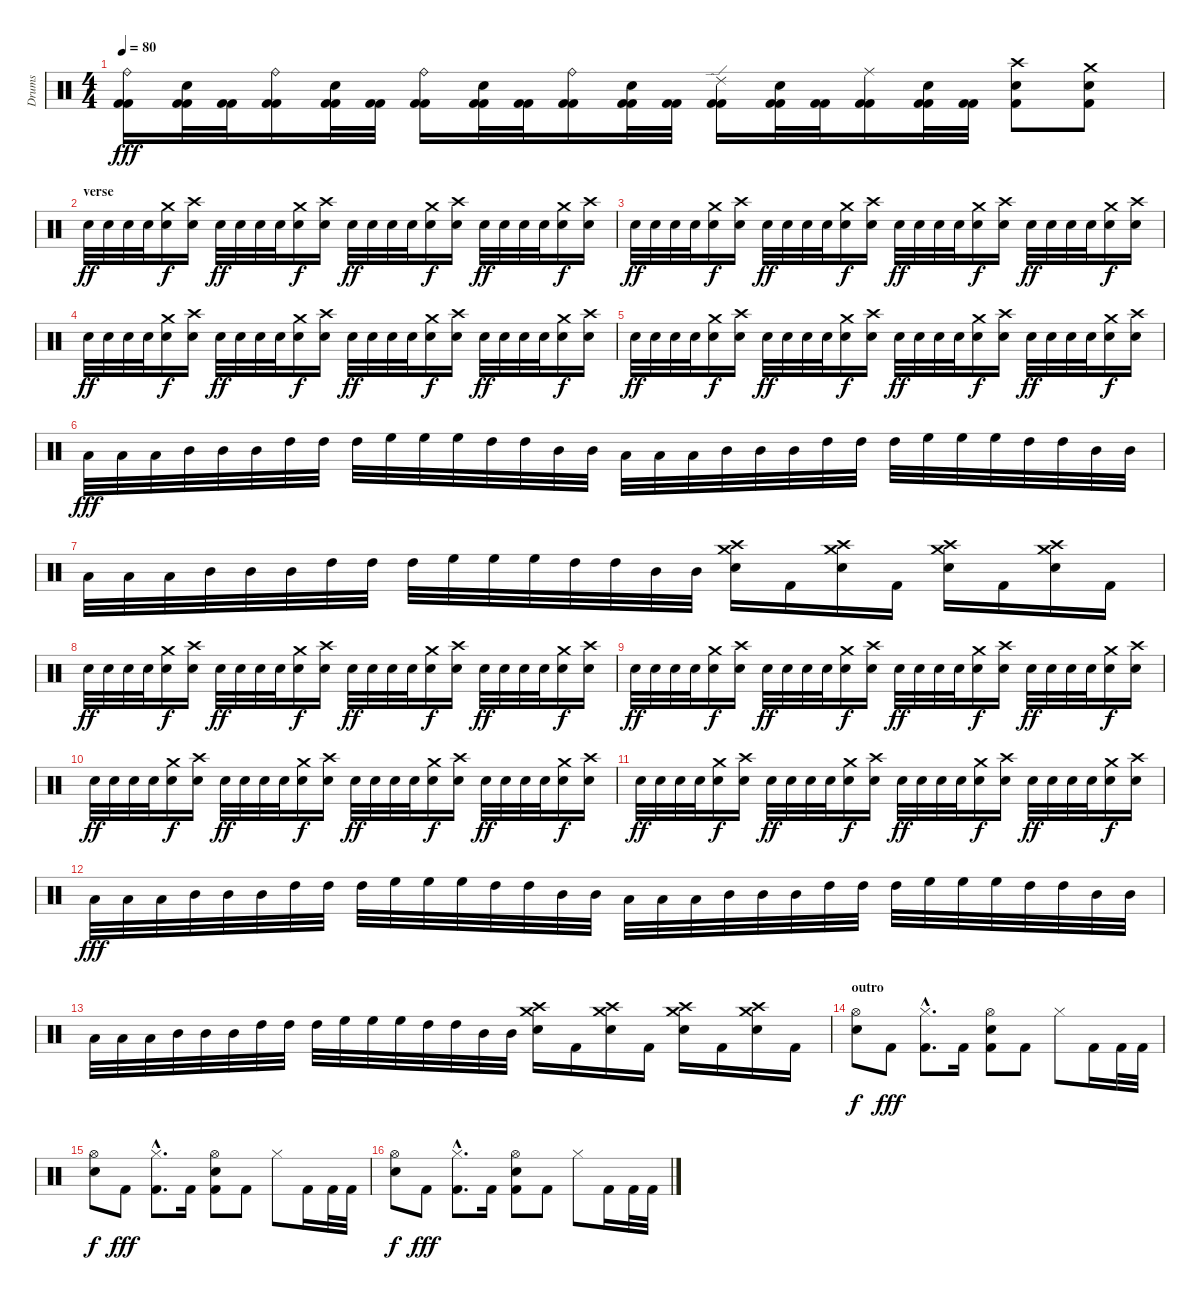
\track ("Drums" "Drums") {instrument percussion}
\staff {score}
\articulation defaults
\ts (4 4)
\tempo 80
\clef neutral
\ks c
("Ride (bell)" "Kick (hit) 2" "Kick (hit) 2").16{dy fff} ("Electric Snare (hit)" "Kick (hit) 2" "Kick (hit) 2").32 ("Kick (hit) 2" "Kick (hit) 2").32 ("Ride (bell)" "Kick (hit) 2" "Kick (hit) 2").16 ("Electric Snare (hit)" "Kick (hit) 2" "Kick (hit) 2").32 ("Kick (hit) 2" "Kick (hit) 2").32 ("Ride (bell)" "Kick (hit) 2" "Kick (hit) 2").16 ("Electric Snare (hit)" "Kick (hit) 2" "Kick (hit) 2").32 ("Kick (hit) 2" "Kick (hit) 2").32 ("Ride (bell)" "Kick (hit) 2" "Kick (hit) 2").16 ("Electric Snare (hit)" "Kick (hit) 2" "Kick (hit) 2").32 ("Kick (hit) 2" "Kick (hit) 2").32 ("Ride (edge) 2" "Kick (hit) 2" "Kick (hit) 2").16 ("Snare (hit) 2" "Kick (hit) 2" "Kick (hit) 2").32 ("Kick (hit) 2" "Kick (hit) 2").32 ("Ride (middle)" "Kick (hit) 2" "Kick (hit) 2").16 ("Snare (hit) 2" "Kick (hit) 2" "Kick (hit) 2").32 ("Kick (hit) 2" "Kick (hit) 2").32 ("Electric Snare (hit)" "Crash high (hit)" "Kick (hit) 2").8 ("Electric Snare (hit)" "Crash medium (hit)" "Kick (hit) 2").8 |
\section ("" "verse")
"Electric Snare (hit)".32{dy ff} "Electric Snare (hit)".32 "Electric Snare (hit)".32 "Electric Snare (hit)".32 ("Snare (hit) 2" "Crash medium (hit)").16{dy f} ("Snare (hit) 2" "Crash high (hit)").16 "Electric Snare (hit)".32{dy ff} "Electric Snare (hit)".32 "Electric Snare (hit)".32 "Electric Snare (hit)".32 ("Snare (hit) 2" "Crash medium (hit)").16{dy f} ("Snare (hit) 2" "Crash high (hit)").16 "Electric Snare (hit)".32{dy ff} "Electric Snare (hit)".32 "Electric Snare (hit)".32 "Electric Snare (hit)".32 ("Snare (hit) 2" "Crash medium (hit)").16{dy f} ("Snare (hit) 2" "Crash high (hit)").16 "Electric Snare (hit)".32{dy ff} "Electric Snare (hit)".32 "Electric Snare (hit)".32 "Electric Snare (hit)".32 ("Snare (hit) 2" "Crash medium (hit)").16{dy f} ("Snare (hit) 2" "Crash high (hit)").16 |
"Electric Snare (hit)".32{dy ff} "Electric Snare (hit)".32 "Electric Snare (hit)".32 "Electric Snare (hit)".32 ("Snare (hit) 2" "Crash medium (hit)").16{dy f} ("Snare (hit) 2" "Crash high (hit)").16 "Electric Snare (hit)".32{dy ff} "Electric Snare (hit)".32 "Electric Snare (hit)".32 "Electric Snare (hit)".32 ("Snare (hit) 2" "Crash medium (hit)").16{dy f} ("Snare (hit) 2" "Crash high (hit)").16 "Electric Snare (hit)".32{dy ff} "Electric Snare (hit)".32 "Electric Snare (hit)".32 "Electric Snare (hit)".32 ("Snare (hit) 2" "Crash medium (hit)").16{dy f} ("Snare (hit) 2" "Crash high (hit)").16 "Electric Snare (hit)".32{dy ff} "Electric Snare (hit)".32 "Electric Snare (hit)".32 "Electric Snare (hit)".32 ("Snare (hit) 2" "Crash medium (hit)").16{dy f} ("Snare (hit) 2" "Crash high (hit)").16 |
"Electric Snare (hit)".32{dy ff} "Electric Snare (hit)".32 "Electric Snare (hit)".32 "Electric Snare (hit)".32 ("Snare (hit) 2" "Crash medium (hit)").16{dy f} ("Snare (hit) 2" "Crash high (hit)").16 "Electric Snare (hit)".32{dy ff} "Electric Snare (hit)".32 "Electric Snare (hit)".32 "Electric Snare (hit)".32 ("Snare (hit) 2" "Crash medium (hit)").16{dy f} ("Snare (hit) 2" "Crash high (hit)").16 "Electric Snare (hit)".32{dy ff} "Electric Snare (hit)".32 "Electric Snare (hit)".32 "Electric Snare (hit)".32 ("Snare (hit) 2" "Crash medium (hit)").16{dy f} ("Snare (hit) 2" "Crash high (hit)").16 "Electric Snare (hit)".32{dy ff} "Electric Snare (hit)".32 "Electric Snare (hit)".32 "Electric Snare (hit)".32 ("Snare (hit) 2" "Crash medium (hit)").16{dy f} ("Snare (hit) 2" "Crash high (hit)").16 |
"Electric Snare (hit)".32{dy ff} "Electric Snare (hit)".32 "Electric Snare (hit)".32 "Electric Snare (hit)".32 ("Snare (hit) 2" "Crash medium (hit)").16{dy f} ("Snare (hit) 2" "Crash high (hit)").16 "Electric Snare (hit)".32{dy ff} "Electric Snare (hit)".32 "Electric Snare (hit)".32 "Electric Snare (hit)".32 ("Snare (hit) 2" "Crash medium (hit)").16{dy f} ("Snare (hit) 2" "Crash high (hit)").16 "Electric Snare (hit)".32{dy ff} "Electric Snare (hit)".32 "Electric Snare (hit)".32 "Electric Snare (hit)".32 ("Snare (hit) 2" "Crash medium (hit)").16{dy f} ("Snare (hit) 2" "Crash high (hit)").16 "Electric Snare (hit)".32{dy ff} "Electric Snare (hit)".32 "Electric Snare (hit)".32 "Electric Snare (hit)".32 ("Snare (hit) 2" "Crash medium (hit)").16{dy f} ("Snare (hit) 2" "Crash high (hit)").16 |
"Low Tom (hit)".32{dy fff} "Low Tom (hit)".32 "Low Tom (hit)".32 "Mid Tom (hit)".32 "Mid Tom (hit)".32 "Mid Tom (hit)".32 "High Tom (hit)".32 "High Tom (hit)".32 "High Tom (hit)".32 "High Floor Tom (hit)".32 "High Floor Tom (hit)".32 "High Floor Tom (hit)".32 "High Tom (hit)".32 "High Tom (hit)".32 "Mid Tom (hit)".32 "Mid Tom (hit)".32 "Low Tom (hit)".32 "Low Tom (hit)".32 "Low Tom (hit)".32 "Mid Tom (hit)".32 "Mid Tom (hit)".32 "Mid Tom (hit)".32 "High Tom (hit)".32 "High Tom (hit)".32 "High Tom (hit)".32 "High Floor Tom (hit)".32 "High Floor Tom (hit)".32 "High Floor Tom (hit)".32 "High Tom (hit)".32 "High Tom (hit)".32 "Mid Tom (hit)".32 "Mid Tom (hit)".32 |
"Low Tom (hit)".32 "Low Tom (hit)".32 "Low Tom (hit)".32 "Mid Tom (hit)".32 "Mid Tom (hit)".32 "Mid Tom (hit)".32 "High Tom (hit)".32 "High Tom (hit)".32 "High Tom (hit)".32 "High Floor Tom (hit)".32 "High Floor Tom (hit)".32 "High Floor Tom (hit)".32 "High Tom (hit)".32 "High Tom (hit)".32 "Mid Tom (hit)".32 "Mid Tom (hit)".32 ("Crash high (hit)" "Crash medium (hit)" "Electric Snare (hit)").16 "Kick (hit) 2".16 ("Crash high (hit)" "Crash medium (hit)" "Electric Snare (hit)").16 "Kick (hit) 2".16 ("Crash high (hit)" "Crash medium (hit)" "Electric Snare (hit)").16 "Kick (hit) 2".16 ("Crash high (hit)" "Crash medium (hit)" "Electric Snare (hit)").16 "Kick (hit) 2".16 |
"Electric Snare (hit)".32{dy ff} "Electric Snare (hit)".32 "Electric Snare (hit)".32 "Electric Snare (hit)".32 ("Snare (hit) 2" "Crash medium (hit)").16{dy f} ("Snare (hit) 2" "Crash high (hit)").16 "Electric Snare (hit)".32{dy ff} "Electric Snare (hit)".32 "Electric Snare (hit)".32 "Electric Snare (hit)".32 ("Snare (hit) 2" "Crash medium (hit)").16{dy f} ("Snare (hit) 2" "Crash high (hit)").16 "Electric Snare (hit)".32{dy ff} "Electric Snare (hit)".32 "Electric Snare (hit)".32 "Electric Snare (hit)".32 ("Snare (hit) 2" "Crash medium (hit)").16{dy f} ("Snare (hit) 2" "Crash high (hit)").16 "Electric Snare (hit)".32{dy ff} "Electric Snare (hit)".32 "Electric Snare (hit)".32 "Electric Snare (hit)".32 ("Snare (hit) 2" "Crash medium (hit)").16{dy f} ("Snare (hit) 2" "Crash high (hit)").16 |
"Electric Snare (hit)".32{dy ff} "Electric Snare (hit)".32 "Electric Snare (hit)".32 "Electric Snare (hit)".32 ("Snare (hit) 2" "Crash medium (hit)").16{dy f} ("Snare (hit) 2" "Crash high (hit)").16 "Electric Snare (hit)".32{dy ff} "Electric Snare (hit)".32 "Electric Snare (hit)".32 "Electric Snare (hit)".32 ("Snare (hit) 2" "Crash medium (hit)").16{dy f} ("Snare (hit) 2" "Crash high (hit)").16 "Electric Snare (hit)".32{dy ff} "Electric Snare (hit)".32 "Electric Snare (hit)".32 "Electric Snare (hit)".32 ("Snare (hit) 2" "Crash medium (hit)").16{dy f} ("Snare (hit) 2" "Crash high (hit)").16 "Electric Snare (hit)".32{dy ff} "Electric Snare (hit)".32 "Electric Snare (hit)".32 "Electric Snare (hit)".32 ("Snare (hit) 2" "Crash medium (hit)").16{dy f} ("Snare (hit) 2" "Crash high (hit)").16 |
"Electric Snare (hit)".32{dy ff} "Electric Snare (hit)".32 "Electric Snare (hit)".32 "Electric Snare (hit)".32 ("Snare (hit) 2" "Crash medium (hit)").16{dy f} ("Snare (hit) 2" "Crash high (hit)").16 "Electric Snare (hit)".32{dy ff} "Electric Snare (hit)".32 "Electric Snare (hit)".32 "Electric Snare (hit)".32 ("Snare (hit) 2" "Crash medium (hit)").16{dy f} ("Snare (hit) 2" "Crash high (hit)").16 "Electric Snare (hit)".32{dy ff} "Electric Snare (hit)".32 "Electric Snare (hit)".32 "Electric Snare (hit)".32 ("Snare (hit) 2" "Crash medium (hit)").16{dy f} ("Snare (hit) 2" "Crash high (hit)").16 "Electric Snare (hit)".32{dy ff} "Electric Snare (hit)".32 "Electric Snare (hit)".32 "Electric Snare (hit)".32 ("Snare (hit) 2" "Crash medium (hit)").16{dy f} ("Snare (hit) 2" "Crash high (hit)").16 |
"Electric Snare (hit)".32{dy ff} "Electric Snare (hit)".32 "Electric Snare (hit)".32 "Electric Snare (hit)".32 ("Snare (hit) 2" "Crash medium (hit)").16{dy f} ("Snare (hit) 2" "Crash high (hit)").16 "Electric Snare (hit)".32{dy ff} "Electric Snare (hit)".32 "Electric Snare (hit)".32 "Electric Snare (hit)".32 ("Snare (hit) 2" "Crash medium (hit)").16{dy f} ("Snare (hit) 2" "Crash high (hit)").16 "Electric Snare (hit)".32{dy ff} "Electric Snare (hit)".32 "Electric Snare (hit)".32 "Electric Snare (hit)".32 ("Snare (hit) 2" "Crash medium (hit)").16{dy f} ("Snare (hit) 2" "Crash high (hit)").16 "Electric Snare (hit)".32{dy ff} "Electric Snare (hit)".32 "Electric Snare (hit)".32 "Electric Snare (hit)".32 ("Snare (hit) 2" "Crash medium (hit)").16{dy f} ("Snare (hit) 2" "Crash high (hit)").16 |
"Low Tom (hit)".32{dy fff} "Low Tom (hit)".32 "Low Tom (hit)".32 "Mid Tom (hit)".32 "Mid Tom (hit)".32 "Mid Tom (hit)".32 "High Tom (hit)".32 "High Tom (hit)".32 "High Tom (hit)".32 "High Floor Tom (hit)".32 "High Floor Tom (hit)".32 "High Floor Tom (hit)".32 "High Tom (hit)".32 "High Tom (hit)".32 "Mid Tom (hit)".32 "Mid Tom (hit)".32 "Low Tom (hit)".32 "Low Tom (hit)".32 "Low Tom (hit)".32 "Mid Tom (hit)".32 "Mid Tom (hit)".32 "Mid Tom (hit)".32 "High Tom (hit)".32 "High Tom (hit)".32 "High Tom (hit)".32 "High Floor Tom (hit)".32 "High Floor Tom (hit)".32 "High Floor Tom (hit)".32 "High Tom (hit)".32 "High Tom (hit)".32 "Mid Tom (hit)".32 "Mid Tom (hit)".32 |
"Low Tom (hit)".32 "Low Tom (hit)".32 "Low Tom (hit)".32 "Mid Tom (hit)".32 "Mid Tom (hit)".32 "Mid Tom (hit)".32 "High Tom (hit)".32 "High Tom (hit)".32 "High Tom (hit)".32 "High Floor Tom (hit)".32 "High Floor Tom (hit)".32 "High Floor Tom (hit)".32 "High Tom (hit)".32 "High Tom (hit)".32 "Mid Tom (hit)".32 "Mid Tom (hit)".32 ("Crash high (hit)" "Crash medium (hit)" "Electric Snare (hit)").16 "Kick (hit) 2".16 ("Crash high (hit)" "Crash medium (hit)" "Electric Snare (hit)").16 "Kick (hit) 2".16 ("Crash high (hit)" "Crash medium (hit)" "Electric Snare (hit)").16 "Kick (hit) 2".16 ("Crash high (hit)" "Crash medium (hit)" "Electric Snare (hit)").16 "Kick (hit) 2".16 |
\section ("" "outro")
("Hi-Hat (open)" "Electric Snare (hit)").8{dy f} "Kick (hit) 2".8{dy fff} ("Hi-Hat (closed)"{hac} "Kick (hit) 2"{hac}).8{d} "Kick (hit) 2".16 ("Hi-Hat (open)" "Kick (hit) 2" "Snare (hit) 2").8 "Kick (hit) 2".8 "Hi-Hat (closed)".8 "Kick (hit) 2".16 "Kick (hit) 2".32 "Kick (hit) 2".32 |
("Hi-Hat (open)" "Electric Snare (hit)").8{dy f} "Kick (hit) 2".8{dy fff} ("Hi-Hat (closed)"{hac} "Kick (hit) 2"{hac}).8{d} "Kick (hit) 2".16 ("Hi-Hat (open)" "Kick (hit) 2" "Snare (hit) 2").8 "Kick (hit) 2".8 "Hi-Hat (closed)".8 "Kick (hit) 2".16 "Kick (hit) 2".32 "Kick (hit) 2".32 |
("Hi-Hat (open)" "Electric Snare (hit)").8{dy f} "Kick (hit) 2".8{dy fff} ("Hi-Hat (closed)"{hac} "Kick (hit) 2"{hac}).8{d} "Kick (hit) 2".16 ("Hi-Hat (open)" "Kick (hit) 2" "Snare (hit) 2").8 "Kick (hit) 2".8 "Hi-Hat (closed)".8 "Kick (hit) 2".16 "Kick (hit) 2".32 "Kick (hit) 2".32
